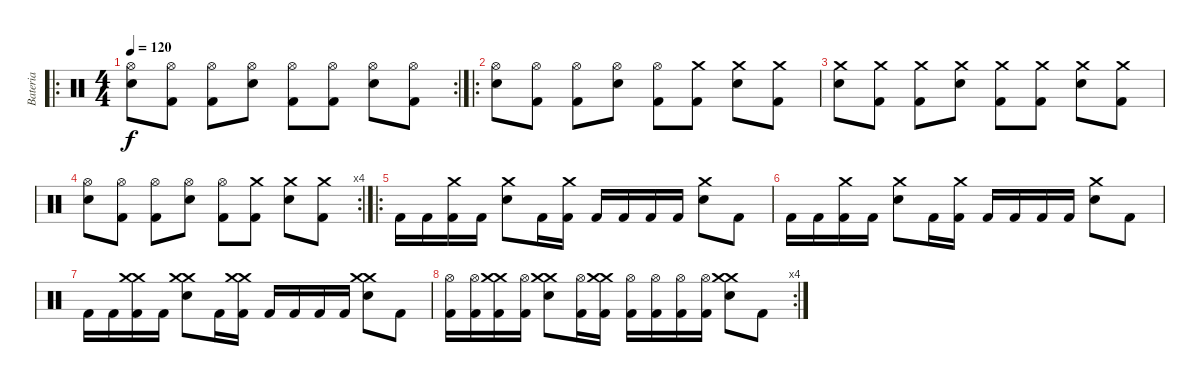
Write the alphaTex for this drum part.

\track ("Bateria" "Bateria") {instrument percussion}
\staff {score}
\articulation defaults
\ro
\rc 2
\ts (4 4)
\tempo 120
\clef neutral
\ks c
("Hi-Hat (open)" "Snare (hit) 2").8{dy f} ("Hi-Hat (open)" "Kick (hit) 2").8 ("Hi-Hat (open)" "Kick (hit) 2").8 ("Hi-Hat (open)" "Snare (hit) 2").8 ("Hi-Hat (open)" "Kick (hit) 2").8 ("Hi-Hat (open)" "Kick (hit) 2").8 ("Hi-Hat (open)" "Snare (hit) 2").8 ("Hi-Hat (open)" "Kick (hit) 2").8 |
\ro
("Hi-Hat (open)" "Snare (hit) 2").8 ("Hi-Hat (open)" "Kick (hit) 2").8 ("Hi-Hat (open)" "Kick (hit) 2").8 ("Hi-Hat (open)" "Snare (hit) 2").8 ("Hi-Hat (open)" "Kick (hit) 2").8 ("Crash medium (hit)" "Kick (hit) 2").8 ("Crash medium (hit)" "Snare (hit) 2").8 ("Crash medium (hit)" "Kick (hit) 2").8 |
("Crash medium (hit)" "Snare (hit) 2").8 ("Crash medium (hit)" "Kick (hit) 2").8 ("Crash medium (hit)" "Kick (hit) 2").8 ("Crash medium (hit)" "Snare (hit) 2").8 ("Crash medium (hit)" "Kick (hit) 2").8 ("Crash medium (hit)" "Kick (hit) 2").8 ("Crash medium (hit)" "Snare (hit) 2").8 ("Crash medium (hit)" "Kick (hit) 2").8 |
\rc 4
("Hi-Hat (open)" "Snare (hit) 2").8 ("Hi-Hat (open)" "Kick (hit) 2").8 ("Hi-Hat (open)" "Kick (hit) 2").8 ("Hi-Hat (open)" "Snare (hit) 2").8 ("Hi-Hat (open)" "Kick (hit) 2").8 ("Crash medium (hit)" "Kick (hit) 2").8 ("Crash medium (hit)" "Snare (hit) 2").8 ("Crash medium (hit)" "Kick (hit) 2").8 |
\ro "Kick (hit) 2".16 "Kick (hit) 2".16
("Crash medium (hit)" "Kick (hit) 2").16 "Kick (hit) 2".16 ("Crash medium (hit)" "Electric Snare (hit)").8 "Kick (hit) 2".16 ("Crash medium (hit)" "Kick (hit) 2").16 "Kick (hit) 2".16 "Kick (hit) 2".16 "Kick (hit) 2".16 "Kick (hit) 2".16 ("Crash medium (hit)" "Electric Snare (hit)").8 "Kick (hit) 2".8 |
"Kick (hit) 2".16 "Kick (hit) 2".16 ("Crash medium (hit)" "Kick (hit) 2").16 "Kick (hit) 2".16 ("Crash medium (hit)" "Electric Snare (hit)").8 "Kick (hit) 2".16 ("Crash medium (hit)" "Kick (hit) 2").16 "Kick (hit) 2".16 "Kick (hit) 2".16 "Kick (hit) 2".16 "Kick (hit) 2".16 ("Crash medium (hit)" "Electric Snare (hit)").8 "Kick (hit) 2".8 |
"Kick (hit) 2".16 "Kick (hit) 2".16 ("Crash medium (hit)" "Crash medium (hit)" "Kick (hit) 2").16 "Kick (hit) 2".16 ("Crash medium (hit)" "Crash medium (hit)" "Electric Snare (hit)").8 "Kick (hit) 2".16 ("Crash medium (hit)" "Crash medium (hit)" "Kick (hit) 2").16 "Kick (hit) 2".16 "Kick (hit) 2".16 "Kick (hit) 2".16 "Kick (hit) 2".16 ("Crash medium (hit)" "Crash medium (hit)" "Electric Snare (hit)").8 "Kick (hit) 2".8 |
\rc 4
("Hi-Hat (open)" "Kick (hit) 2").16 ("Hi-Hat (open)" "Kick (hit) 2").16 ("Crash medium (hit)" "Crash medium (hit)" "Kick (hit) 2").16 ("Hi-Hat (open)" "Kick (hit) 2").16 ("Crash medium (hit)" "Crash medium (hit)" "Electric Snare (hit)").8 ("Hi-Hat (open)" "Kick (hit) 2").16 ("Crash medium (hit)" "Crash medium (hit)" "Kick (hit) 2").16 ("Hi-Hat (open)" "Kick (hit) 2").16 ("Hi-Hat (open)" "Kick (hit) 2").16 ("Hi-Hat (open)" "Kick (hit) 2").16 ("Hi-Hat (open)" "Kick (hit) 2").16 ("Crash medium (hit)" "Crash medium (hit)" "Electric Snare (hit)").8 "Kick (hit) 2".8
